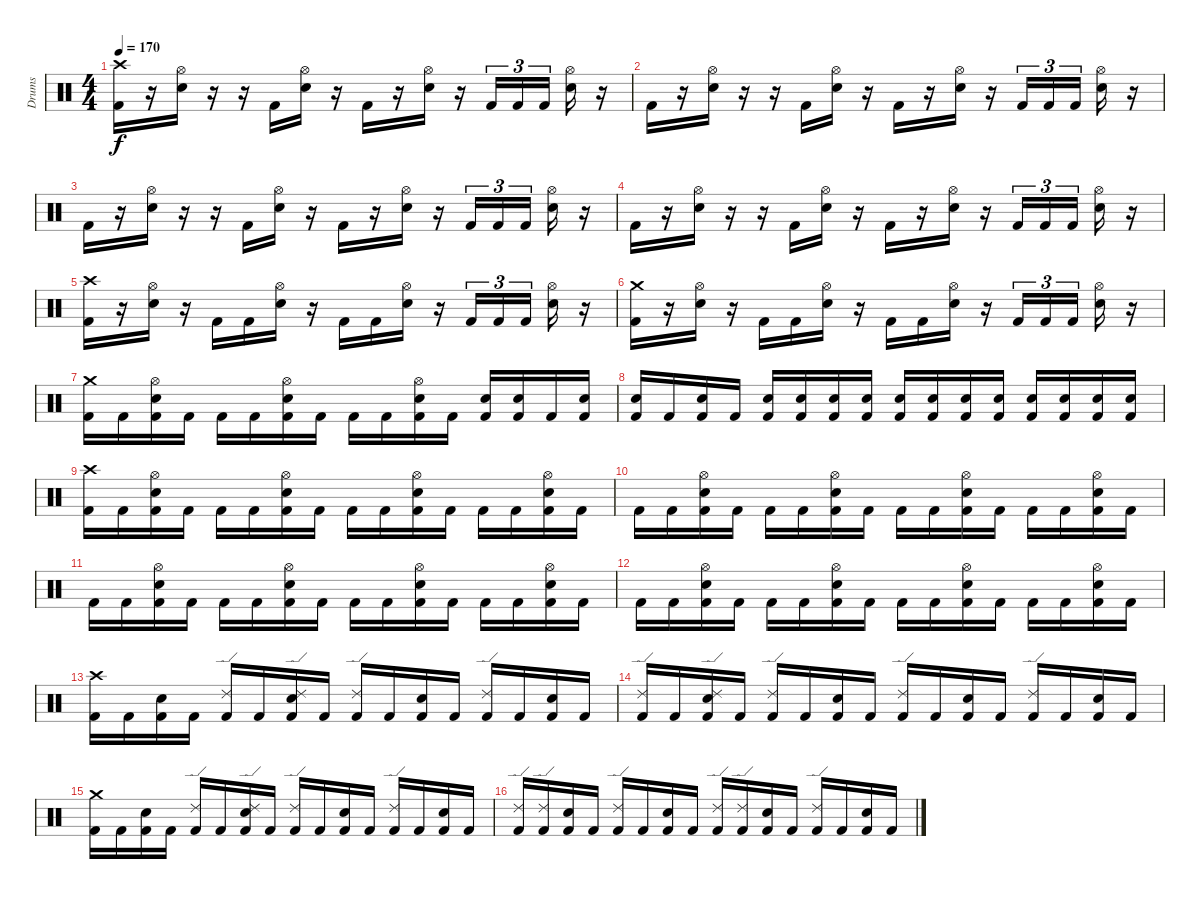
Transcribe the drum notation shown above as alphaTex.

\track ("Drums" "Drums") {instrument percussion}
\staff {score}
\articulation defaults
\ts (4 4)
\tempo 170
\clef neutral
\ks c
("Kick (hit) 2" "Crash high (hit)").16{dy f} r.16 ("Electric Snare (hit)" "Hi-Hat (open)").16 r.16 r.16 "Kick (hit) 2".16 ("Electric Snare (hit)" "Hi-Hat (open)").16 r.16 "Kick (hit) 2".16 r.16 ("Electric Snare (hit)" "Hi-Hat (open)").16 r.16 "Kick (hit) 2".16{tu (3 2)} "Kick (hit) 2".16{tu (3 2)} "Kick (hit) 2".16{tu (3 2)} ("Electric Snare (hit)" "Hi-Hat (open)").16 r.16 |
"Kick (hit) 2".16 r.16 ("Electric Snare (hit)" "Hi-Hat (open)").16 r.16 r.16 "Kick (hit) 2".16 ("Electric Snare (hit)" "Hi-Hat (open)").16 r.16 "Kick (hit) 2".16 r.16 ("Electric Snare (hit)" "Hi-Hat (open)").16 r.16 "Kick (hit) 2".16{tu (3 2)} "Kick (hit) 2".16{tu (3 2)} "Kick (hit) 2".16{tu (3 2)} ("Electric Snare (hit)" "Hi-Hat (open)").16 r.16 |
"Kick (hit) 2".16 r.16 ("Electric Snare (hit)" "Hi-Hat (open)").16 r.16 r.16 "Kick (hit) 2".16 ("Electric Snare (hit)" "Hi-Hat (open)").16 r.16 "Kick (hit) 2".16 r.16 ("Electric Snare (hit)" "Hi-Hat (open)").16 r.16 "Kick (hit) 2".16{tu (3 2)} "Kick (hit) 2".16{tu (3 2)} "Kick (hit) 2".16{tu (3 2)} ("Electric Snare (hit)" "Hi-Hat (open)").16 r.16 |
"Kick (hit) 2".16 r.16 ("Electric Snare (hit)" "Hi-Hat (open)").16 r.16 r.16 "Kick (hit) 2".16 ("Electric Snare (hit)" "Hi-Hat (open)").16 r.16 "Kick (hit) 2".16 r.16 ("Electric Snare (hit)" "Hi-Hat (open)").16 r.16 "Kick (hit) 2".16{tu (3 2)} "Kick (hit) 2".16{tu (3 2)} "Kick (hit) 2".16{tu (3 2)} ("Electric Snare (hit)" "Hi-Hat (open)").16 r.16 |
("Kick (hit) 2" "Crash high (hit)").16 r.16 ("Electric Snare (hit)" "Hi-Hat (open)").16 r.16 "Kick (hit) 2".16 "Kick (hit) 2".16 ("Electric Snare (hit)" "Hi-Hat (open)").16 r.16 "Kick (hit) 2".16 "Kick (hit) 2".16 ("Electric Snare (hit)" "Hi-Hat (open)").16 r.16 "Kick (hit) 2".16{tu (3 2)} "Kick (hit) 2".16{tu (3 2)} "Kick (hit) 2".16{tu (3 2)} ("Electric Snare (hit)" "Hi-Hat (open)").16 r.16 |
("Kick (hit) 2" "Crash medium (hit)").16 r.16 ("Electric Snare (hit)" "Hi-Hat (open)").16 r.16 "Kick (hit) 2".16 "Kick (hit) 2".16 ("Electric Snare (hit)" "Hi-Hat (open)").16 r.16 "Kick (hit) 2".16 "Kick (hit) 2".16 ("Electric Snare (hit)" "Hi-Hat (open)").16 r.16 "Kick (hit) 2".16{tu (3 2)} "Kick (hit) 2".16{tu (3 2)} "Kick (hit) 2".16{tu (3 2)} ("Electric Snare (hit)" "Hi-Hat (open)").16 r.16 |
("Kick (hit) 2" "Crash medium (hit)").16 "Kick (hit) 2".16 ("Kick (hit) 2" "Electric Snare (hit)" "Hi-Hat (open)").16 "Kick (hit) 2".16 "Kick (hit) 2".16 "Kick (hit) 2".16 ("Kick (hit) 2" "Electric Snare (hit)" "Hi-Hat (open)").16 "Kick (hit) 2".16 "Kick (hit) 2".16 "Kick (hit) 2".16 ("Kick (hit) 2" "Electric Snare (hit)" "Hi-Hat (open)").16 "Kick (hit) 2".16 ("Kick (hit) 2" "Electric Snare (hit)").16 ("Kick (hit) 2" "Electric Snare (hit)").16 "Kick (hit) 2".16 ("Kick (hit) 2" "Electric Snare (hit)").16 |
("Kick (hit) 2" "Electric Snare (hit)").16 "Kick (hit) 2".16 ("Kick (hit) 2" "Electric Snare (hit)").16 "Kick (hit) 2".16 ("Kick (hit) 2" "Electric Snare (hit)").16 ("Kick (hit) 2" "Electric Snare (hit)").16 ("Kick (hit) 2" "Electric Snare (hit)").16 ("Kick (hit) 2" "Electric Snare (hit)").16 ("Kick (hit) 2" "Electric Snare (hit)").16 ("Kick (hit) 2" "Electric Snare (hit)").16 ("Kick (hit) 2" "Electric Snare (hit)").16 ("Kick (hit) 2" "Electric Snare (hit)").16 ("Kick (hit) 2" "Electric Snare (hit)").16 ("Kick (hit) 2" "Electric Snare (hit)").16 ("Kick (hit) 2" "Electric Snare (hit)").16 ("Kick (hit) 2" "Electric Snare (hit)").16 |
("Kick (hit) 2" "Crash high (hit)").16 "Kick (hit) 2".16 ("Kick (hit) 2" "Electric Snare (hit)" "Hi-Hat (open)").16 "Kick (hit) 2".16 "Kick (hit) 2".16 "Kick (hit) 2".16 ("Kick (hit) 2" "Electric Snare (hit)" "Hi-Hat (open)").16 "Kick (hit) 2".16 "Kick (hit) 2".16 "Kick (hit) 2".16 ("Kick (hit) 2" "Electric Snare (hit)" "Hi-Hat (open)").16 "Kick (hit) 2".16 "Kick (hit) 2".16 "Kick (hit) 2".16 ("Kick (hit) 2" "Electric Snare (hit)" "Hi-Hat (open)").16 "Kick (hit) 2".16 |
"Kick (hit) 2".16 "Kick (hit) 2".16 ("Kick (hit) 2" "Electric Snare (hit)" "Hi-Hat (open)").16 "Kick (hit) 2".16 "Kick (hit) 2".16 "Kick (hit) 2".16 ("Kick (hit) 2" "Electric Snare (hit)" "Hi-Hat (open)").16 "Kick (hit) 2".16 "Kick (hit) 2".16 "Kick (hit) 2".16 ("Kick (hit) 2" "Electric Snare (hit)" "Hi-Hat (open)").16 "Kick (hit) 2".16 "Kick (hit) 2".16 "Kick (hit) 2".16 ("Kick (hit) 2" "Electric Snare (hit)" "Hi-Hat (open)").16 "Kick (hit) 2".16 |
"Kick (hit) 2".16 "Kick (hit) 2".16 ("Kick (hit) 2" "Electric Snare (hit)" "Hi-Hat (open)").16 "Kick (hit) 2".16 "Kick (hit) 2".16 "Kick (hit) 2".16 ("Kick (hit) 2" "Electric Snare (hit)" "Hi-Hat (open)").16 "Kick (hit) 2".16 "Kick (hit) 2".16 "Kick (hit) 2".16 ("Kick (hit) 2" "Electric Snare (hit)" "Hi-Hat (open)").16 "Kick (hit) 2".16 "Kick (hit) 2".16 "Kick (hit) 2".16 ("Kick (hit) 2" "Electric Snare (hit)" "Hi-Hat (open)").16 "Kick (hit) 2".16 |
"Kick (hit) 2".16 "Kick (hit) 2".16 ("Kick (hit) 2" "Electric Snare (hit)" "Hi-Hat (open)").16 "Kick (hit) 2".16 "Kick (hit) 2".16 "Kick (hit) 2".16 ("Kick (hit) 2" "Electric Snare (hit)" "Hi-Hat (open)").16 "Kick (hit) 2".16 "Kick (hit) 2".16 "Kick (hit) 2".16 ("Kick (hit) 2" "Electric Snare (hit)" "Hi-Hat (open)").16 "Kick (hit) 2".16 "Kick (hit) 2".16 "Kick (hit) 2".16 ("Kick (hit) 2" "Electric Snare (hit)" "Hi-Hat (open)").16 "Kick (hit) 2".16 |
("Kick (hit) 2" "Crash high (hit)").16 "Kick (hit) 2".16 ("Kick (hit) 2" "Electric Snare (hit)").16 "Kick (hit) 2".16 ("Kick (hit) 2" "Ride (edge) 2").16 "Kick (hit) 2".16 ("Kick (hit) 2" "Electric Snare (hit)" "Ride (edge) 2").16 "Kick (hit) 2".16 ("Kick (hit) 2" "Ride (edge) 2").16 "Kick (hit) 2".16 ("Kick (hit) 2" "Electric Snare (hit)").16 "Kick (hit) 2".16 ("Kick (hit) 2" "Ride (edge) 2").16 "Kick (hit) 2".16 ("Kick (hit) 2" "Electric Snare (hit)").16 "Kick (hit) 2".16 |
("Kick (hit) 2" "Ride (edge) 2").16 "Kick (hit) 2".16 ("Kick (hit) 2" "Electric Snare (hit)" "Ride (edge) 2").16 "Kick (hit) 2".16 ("Kick (hit) 2" "Ride (edge) 2").16 "Kick (hit) 2".16 ("Kick (hit) 2" "Electric Snare (hit)").16 "Kick (hit) 2".16 ("Kick (hit) 2" "Ride (edge) 2").16 "Kick (hit) 2".16 ("Kick (hit) 2" "Electric Snare (hit)").16 "Kick (hit) 2".16 ("Kick (hit) 2" "Ride (edge) 2").16 "Kick (hit) 2".16 ("Kick (hit) 2" "Electric Snare (hit)").16 "Kick (hit) 2".16 |
("Kick (hit) 2" "Crash medium (hit)").16 "Kick (hit) 2".16 ("Kick (hit) 2" "Electric Snare (hit)").16 "Kick (hit) 2".16 ("Kick (hit) 2" "Ride (edge) 2").16 "Kick (hit) 2".16 ("Kick (hit) 2" "Electric Snare (hit)" "Ride (edge) 2").16 "Kick (hit) 2".16 ("Kick (hit) 2" "Ride (edge) 2").16 "Kick (hit) 2".16 ("Kick (hit) 2" "Electric Snare (hit)").16 "Kick (hit) 2".16 ("Kick (hit) 2" "Ride (edge) 2").16 "Kick (hit) 2".16 ("Kick (hit) 2" "Electric Snare (hit)").16 "Kick (hit) 2".16 |
("Kick (hit) 2" "Ride (edge) 2").16 ("Kick (hit) 2" "Ride (edge) 2").16 ("Kick (hit) 2" "Electric Snare (hit)").16 "Kick (hit) 2".16 ("Kick (hit) 2" "Ride (edge) 2").16 "Kick (hit) 2".16 ("Kick (hit) 2" "Electric Snare (hit)").16 "Kick (hit) 2".16 ("Kick (hit) 2" "Ride (edge) 2").16 ("Kick (hit) 2" "Ride (edge) 2").16 ("Kick (hit) 2" "Electric Snare (hit)").16 "Kick (hit) 2".16 ("Kick (hit) 2" "Ride (edge) 2").16 "Kick (hit) 2".16 ("Kick (hit) 2" "Electric Snare (hit)").16 "Kick (hit) 2".16
